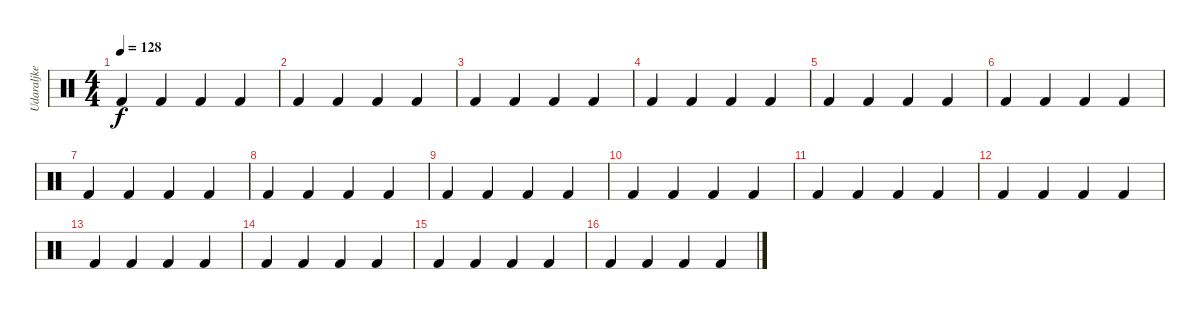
\track ("Udaraljke" "Udaraljke") {instrument percussion}
\staff {score}
\articulation defaults
\ts (4 4)
\tempo 128
\clef neutral
\ks c "Kick (hit) 2".4{dy f} "Kick (hit) 2".4 "Kick (hit) 2".4 "Kick (hit) 2".4
|
"Kick (hit) 2".4 "Kick (hit) 2".4 "Kick (hit) 2".4 "Kick (hit) 2".4 |
"Kick (hit) 2".4 "Kick (hit) 2".4 "Kick (hit) 2".4 "Kick (hit) 2".4 |
"Kick (hit) 2".4 "Kick (hit) 2".4 "Kick (hit) 2".4 "Kick (hit) 2".4 |
"Kick (hit) 2".4 "Kick (hit) 2".4 "Kick (hit) 2".4 "Kick (hit) 2".4 |
"Kick (hit) 2".4 "Kick (hit) 2".4 "Kick (hit) 2".4 "Kick (hit) 2".4 |
"Kick (hit) 2".4 "Kick (hit) 2".4 "Kick (hit) 2".4 "Kick (hit) 2".4 |
"Kick (hit) 2".4 "Kick (hit) 2".4 "Kick (hit) 2".4 "Kick (hit) 2".4 |
"Kick (hit) 2".4 "Kick (hit) 2".4 "Kick (hit) 2".4 "Kick (hit) 2".4 |
"Kick (hit) 2".4 "Kick (hit) 2".4 "Kick (hit) 2".4 "Kick (hit) 2".4 |
"Kick (hit) 2".4 "Kick (hit) 2".4 "Kick (hit) 2".4 "Kick (hit) 2".4 |
"Kick (hit) 2".4 "Kick (hit) 2".4 "Kick (hit) 2".4 "Kick (hit) 2".4 |
"Kick (hit) 2".4 "Kick (hit) 2".4 "Kick (hit) 2".4 "Kick (hit) 2".4 |
"Kick (hit) 2".4 "Kick (hit) 2".4 "Kick (hit) 2".4 "Kick (hit) 2".4 |
"Kick (hit) 2".4 "Kick (hit) 2".4 "Kick (hit) 2".4 "Kick (hit) 2".4 |
"Kick (hit) 2".4 "Kick (hit) 2".4 "Kick (hit) 2".4 "Kick (hit) 2".4
